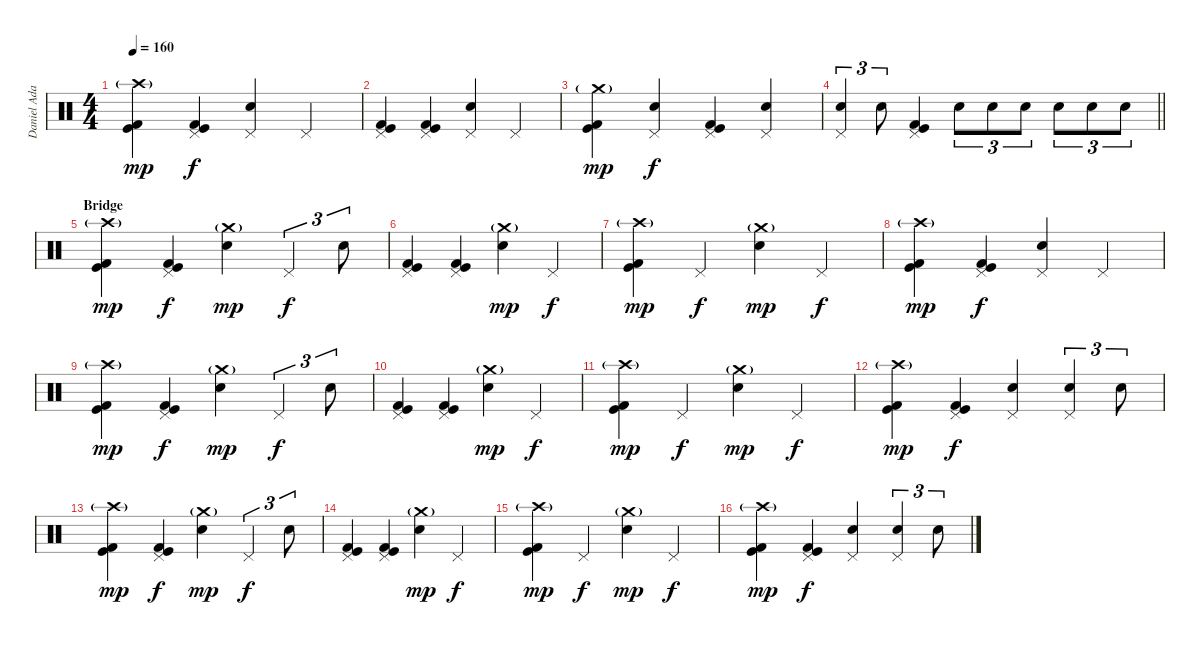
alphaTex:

\track ("Daniel Adair" "Daniel Ada") {instrument percussion}
\staff {score}
\articulation defaults
\ts (4 4)
\section ("" "")
\tempo 160
\clef neutral
\ks c
("Crash high (hit)"{g} "Kick (hit)" "Kick (hit) 2").4{dy mp} ("Pedal Hi-Hat (hit)" "Kick (hit)" "Kick (hit) 2").4{dy f} ("Pedal Hi-Hat (hit)" "Electric Snare (hit)").4 "Pedal Hi-Hat (hit)".4 |
("Pedal Hi-Hat (hit)" "Kick (hit)" "Kick (hit) 2").4 ("Pedal Hi-Hat (hit)" "Kick (hit)" "Kick (hit) 2").4 ("Pedal Hi-Hat (hit)" "Electric Snare (hit)").4 "Pedal Hi-Hat (hit)".4 |
("Crash medium (hit)"{g} "Kick (hit)" "Kick (hit) 2").4{dy mp} ("Pedal Hi-Hat (hit)" "Electric Snare (hit)").4{dy f} ("Pedal Hi-Hat (hit)" "Kick (hit)" "Kick (hit) 2").4 ("Pedal Hi-Hat (hit)" "Electric Snare (hit)").4 |
\barLineRight lightlight
("Pedal Hi-Hat (hit)" "Electric Snare (hit)").4{tu (3 2)} "Electric Snare (hit)".8{tu (3 2)} ("Pedal Hi-Hat (hit)" "Kick (hit)" "Kick (hit) 2").4 "Electric Snare (hit)".8{tu (3 2)} "Electric Snare (hit)".8{tu (3 2)} "Electric Snare (hit)".8{tu (3 2)} "Electric Snare (hit)".8{tu (3 2)} "Electric Snare (hit)".8{tu (3 2)} "Electric Snare (hit)".8{tu (3 2)} |
\section ("" "Bridge")
("Crash high (hit)"{g} "Kick (hit)" "Kick (hit) 2").4{dy mp} ("Pedal Hi-Hat (hit)" "Kick (hit)" "Kick (hit) 2").4{dy f} ("Crash medium (hit)"{g} "Electric Snare (hit)").4{dy mp} "Pedal Hi-Hat (hit)".4{tu (3 2) dy f} "Electric Snare (hit)".8{tu (3 2)} |
("Pedal Hi-Hat (hit)" "Kick (hit)" "Kick (hit) 2").4 ("Pedal Hi-Hat (hit)" "Kick (hit)" "Kick (hit) 2").4 ("Crash medium (hit)"{g} "Electric Snare (hit)").4{dy mp} "Pedal Hi-Hat (hit)".4{dy f} |
("Crash high (hit)"{g} "Kick (hit)" "Kick (hit) 2").4{dy mp} "Pedal Hi-Hat (hit)".4{dy f} ("Crash medium (hit)"{g} "Electric Snare (hit)").4{dy mp} "Pedal Hi-Hat (hit)".4{dy f} |
("Crash high (hit)"{g} "Kick (hit)" "Kick (hit) 2").4{dy mp} ("Pedal Hi-Hat (hit)" "Kick (hit)" "Kick (hit) 2").4{dy f} ("Pedal Hi-Hat (hit)" "Electric Snare (hit)").4 "Pedal Hi-Hat (hit)".4 |
("Crash high (hit)"{g} "Kick (hit)" "Kick (hit) 2").4{dy mp} ("Pedal Hi-Hat (hit)" "Kick (hit)" "Kick (hit) 2").4{dy f} ("Crash medium (hit)"{g} "Electric Snare (hit)").4{dy mp} "Pedal Hi-Hat (hit)".4{tu (3 2) dy f} "Electric Snare (hit)".8{tu (3 2)} |
("Pedal Hi-Hat (hit)" "Kick (hit)" "Kick (hit) 2").4 ("Pedal Hi-Hat (hit)" "Kick (hit)" "Kick (hit) 2").4 ("Crash medium (hit)"{g} "Electric Snare (hit)").4{dy mp} "Pedal Hi-Hat (hit)".4{dy f} |
("Crash high (hit)"{g} "Kick (hit)" "Kick (hit) 2").4{dy mp} "Pedal Hi-Hat (hit)".4{dy f} ("Crash medium (hit)"{g} "Electric Snare (hit)").4{dy mp} "Pedal Hi-Hat (hit)".4{dy f} |
("Crash high (hit)"{g} "Kick (hit)" "Kick (hit) 2").4{dy mp} ("Pedal Hi-Hat (hit)" "Kick (hit)" "Kick (hit) 2").4{dy f} ("Pedal Hi-Hat (hit)" "Electric Snare (hit)").4 ("Pedal Hi-Hat (hit)" "Electric Snare (hit)").4{tu (3 2)} "Electric Snare (hit)".8{tu (3 2)} |
("Crash high (hit)"{g} "Kick (hit)" "Kick (hit) 2").4{dy mp} ("Pedal Hi-Hat (hit)" "Kick (hit)" "Kick (hit) 2").4{dy f} ("Crash medium (hit)"{g} "Electric Snare (hit)").4{dy mp} "Pedal Hi-Hat (hit)".4{tu (3 2) dy f} "Electric Snare (hit)".8{tu (3 2)} |
("Pedal Hi-Hat (hit)" "Kick (hit)" "Kick (hit) 2").4 ("Pedal Hi-Hat (hit)" "Kick (hit)" "Kick (hit) 2").4 ("Crash medium (hit)"{g} "Electric Snare (hit)").4{dy mp} "Pedal Hi-Hat (hit)".4{dy f} |
("Crash high (hit)"{g} "Kick (hit)" "Kick (hit) 2").4{dy mp} "Pedal Hi-Hat (hit)".4{dy f} ("Crash medium (hit)"{g} "Electric Snare (hit)").4{dy mp} "Pedal Hi-Hat (hit)".4{dy f} |
("Crash high (hit)"{g} "Kick (hit)" "Kick (hit) 2").4{dy mp} ("Pedal Hi-Hat (hit)" "Kick (hit)" "Kick (hit) 2").4{dy f} ("Pedal Hi-Hat (hit)" "Electric Snare (hit)").4 ("Pedal Hi-Hat (hit)" "Electric Snare (hit)").4{tu (3 2)} "Electric Snare (hit)".8{tu (3 2)}
